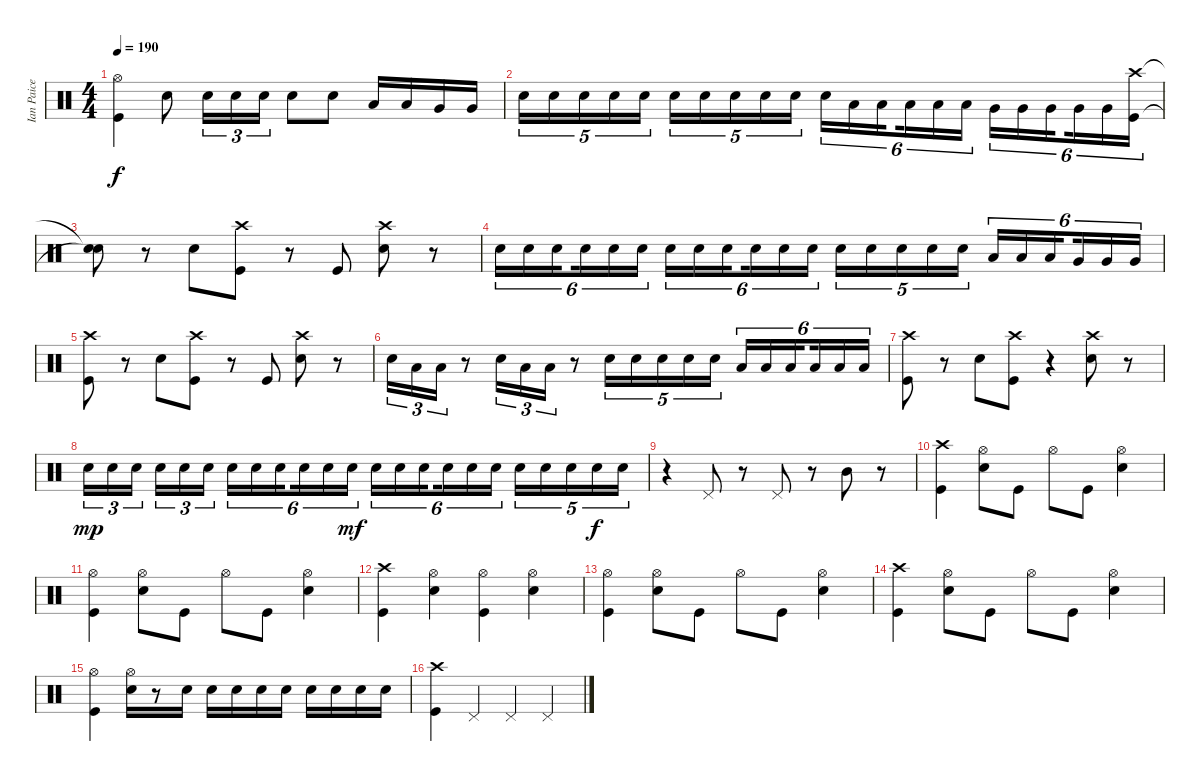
\track ("Ian Paice" "Ian Paice") {instrument percussion}
\staff {score}
\articulation defaults
\ts (4 4)
\tempo 190
\clef neutral
\ks c
("Hi-Hat (open)" "Kick (hit)").4{dy f} "Snare (hit) 2".8 "Snare (hit) 2".16{tu (3 2)} "Snare (hit) 2".16{tu (3 2)} "Snare (hit) 2".16{tu (3 2)} "Snare (hit) 2".8 "Snare (hit) 2".8 "Low Tom (hit)".16 "Low Tom (hit)".16 "Very Low Tom (hit)".16 "Very Low Tom (hit)".16 |
"Snare (hit) 2".16{tu (5 4)} "Snare (hit) 2".16{tu (5 4)} "Snare (hit) 2".16{tu (5 4)} "Snare (hit) 2".16{tu (5 4)} "Snare (hit) 2".16{tu (5 4)} "Snare (hit) 2".16{tu (5 4)} "Snare (hit) 2".16{tu (5 4)} "Snare (hit) 2".16{tu (5 4)} "Snare (hit) 2".16{tu (5 4)} "Snare (hit) 2".16{tu (5 4)} "Snare (hit) 2".16{tu (6 4)} "Low Tom (hit)".16{tu (6 4)} "Low Tom (hit)".16{tu (6 4) beam splitsecondary} "Low Tom (hit)".16{tu (6 4)} "Low Tom (hit)".16{tu (6 4)} "Low Tom (hit)".16{tu (6 4)} "Very Low Tom (hit)".16{tu (6 4)} "Very Low Tom (hit)".16{tu (6 4)} "Very Low Tom (hit)".16{tu (6 4) beam splitsecondary} "Very Low Tom (hit)".16{tu (6 4)} "Very Low Tom (hit)".16{tu (6 4)} ("Crash high (hit)" "Kick (hit)").16{tu (6 4)} |
("Snare (hit)"{t} "Snare (hit)"{t}).8 r.8 "Snare (hit) 2".8 ("Crash high (hit)" "Kick (hit)").8 r.8 "Kick (hit)".8 ("Crash high (hit)" "Snare (hit) 2").8 r.8 |
"Snare (hit) 2".16{tu (6 4)} "Snare (hit) 2".16{tu (6 4)} "Snare (hit) 2".16{tu (6 4) beam splitsecondary} "Snare (hit) 2".16{tu (6 4)} "Snare (hit) 2".16{tu (6 4)} "Snare (hit) 2".16{tu (6 4)} "Snare (hit) 2".16{tu (6 4)} "Snare (hit) 2".16{tu (6 4)} "Snare (hit) 2".16{tu (6 4) beam splitsecondary} "Snare (hit) 2".16{tu (6 4)} "Snare (hit) 2".16{tu (6 4)} "Snare (hit) 2".16{tu (6 4)} "Snare (hit) 2".16{tu (5 4)} "Snare (hit) 2".16{tu (5 4)} "Snare (hit) 2".16{tu (5 4)} "Snare (hit) 2".16{tu (5 4)} "Snare (hit) 2".16{tu (5 4)} "Low Tom (hit)".16{tu (6 4)} "Low Tom (hit)".16{tu (6 4)} "Low Tom (hit)".16{tu (6 4) beam splitsecondary} "Very Low Tom (hit)".16{tu (6 4)} "Very Low Tom (hit)".16{tu (6 4)} "Very Low Tom (hit)".16{tu (6 4)} |
("Crash high (hit)" "Kick (hit)").8 r.8 "Snare (hit) 2".8 ("Kick (hit)" "Crash high (hit)").8 r.8 "Kick (hit)".8 ("Snare (hit) 2" "Crash high (hit)").8 r.8 |
"Snare (hit) 2".16{tu (3 2)} "Low Tom (hit)".16{tu (3 2)} "Low Tom (hit)".16{tu (3 2)} r.8 "Snare (hit) 2".16{tu (3 2)} "Low Tom (hit)".16{tu (3 2)} "Low Tom (hit)".16{tu (3 2)} r.8 "Snare (hit) 2".16{tu (5 4)} "Snare (hit) 2".16{tu (5 4)} "Snare (hit) 2".16{tu (5 4)} "Snare (hit) 2".16{tu (5 4)} "Snare (hit) 2".16{tu (5 4)} "Low Tom (hit)".16{tu (6 4)} "Low Tom (hit)".16{tu (6 4)} "Low Tom (hit)".16{tu (6 4) beam splitsecondary} "Low Tom (hit)".16{tu (6 4)} "Low Tom (hit)".16{tu (6 4)} "Low Tom (hit)".16{tu (6 4)} |
("Kick (hit)" "Crash high (hit)").8 r.8 "Snare (hit) 2".8 ("Kick (hit)" "Crash high (hit)").8 r.4 ("Snare (hit) 2" "Crash high (hit)").8 r.8 |
"Snare (hit) 2".16{tu (3 2) dy mp} "Snare (hit) 2".16{tu (3 2)} "Snare (hit) 2".16{tu (3 2) beam splitsecondary} "Snare (hit) 2".16{tu (3 2)} "Snare (hit) 2".16{tu (3 2)} "Snare (hit) 2".16{tu (3 2)} "Snare (hit) 2".16{tu (6 4)} "Snare (hit) 2".16{tu (6 4)} "Snare (hit) 2".16{tu (6 4) beam splitsecondary} "Snare (hit) 2".16{tu (6 4)} "Snare (hit) 2".16{tu (6 4)} "Snare (hit) 2".16{tu (6 4) dy mf} "Snare (hit) 2".16{tu (6 4)} "Snare (hit) 2".16{tu (6 4)} "Snare (hit) 2".16{tu (6 4) beam splitsecondary} "Snare (hit) 2".16{tu (6 4)} "Snare (hit) 2".16{tu (6 4)} "Snare (hit) 2".16{tu (6 4)} "Snare (hit) 2".16{tu (5 4)} "Snare (hit) 2".16{tu (5 4)} "Snare (hit) 2".16{tu (5 4)} "Snare (hit) 2".16{tu (5 4) dy f} "Snare (hit) 2".16{tu (5 4)} |
r.4 "Pedal Hi-Hat (hit)".8 r.8 "Pedal Hi-Hat (hit)".8 r.8 "Mid Tom (hit)".8 r.8 |
("Crash high (hit)" "Kick (hit)").4 ("Hi-Hat (open)" "Snare (hit) 2").8 "Kick (hit)".8 "Hi-Hat (open)".8 "Kick (hit)".8 ("Snare (hit) 2" "Hi-Hat (open)").4 |
("Kick (hit)" "Hi-Hat (open)").4 ("Snare (hit) 2" "Hi-Hat (open)").8 "Kick (hit)".8 "Hi-Hat (open)".8 "Kick (hit)".8 ("Hi-Hat (open)" "Snare (hit) 2").4 |
("Crash high (hit)" "Kick (hit)").4 ("Hi-Hat (open)" "Snare (hit) 2").4 ("Hi-Hat (open)" "Kick (hit)").4 ("Hi-Hat (open)" "Snare (hit) 2").4 |
("Hi-Hat (open)" "Kick (hit)").4 ("Snare (hit) 2" "Hi-Hat (open)").8 "Kick (hit)".8 "Hi-Hat (open)".8 "Kick (hit)".8 ("Snare (hit) 2" "Hi-Hat (open)").4 |
("Crash high (hit)" "Kick (hit)").4 ("Hi-Hat (open)" "Snare (hit) 2").8 "Kick (hit)".8 "Hi-Hat (open)".8 "Kick (hit)".8 ("Hi-Hat (open)" "Snare (hit) 2").4 |
("Hi-Hat (open)" "Kick (hit)").4 ("Hi-Hat (open)" "Snare (hit) 2").16 r.8 "Snare (hit) 2".16 "Snare (hit) 2".16 "Snare (hit) 2".16 "Snare (hit) 2".16 "Snare (hit) 2".16 "Snare (hit) 2".16 "Snare (hit) 2".16 "Snare (hit) 2".16 "Snare (hit) 2".16 |
("Crash high (hit)" "Kick (hit)").4 "Pedal Hi-Hat (hit)".4 "Pedal Hi-Hat (hit)".4 "Pedal Hi-Hat (hit)".4
